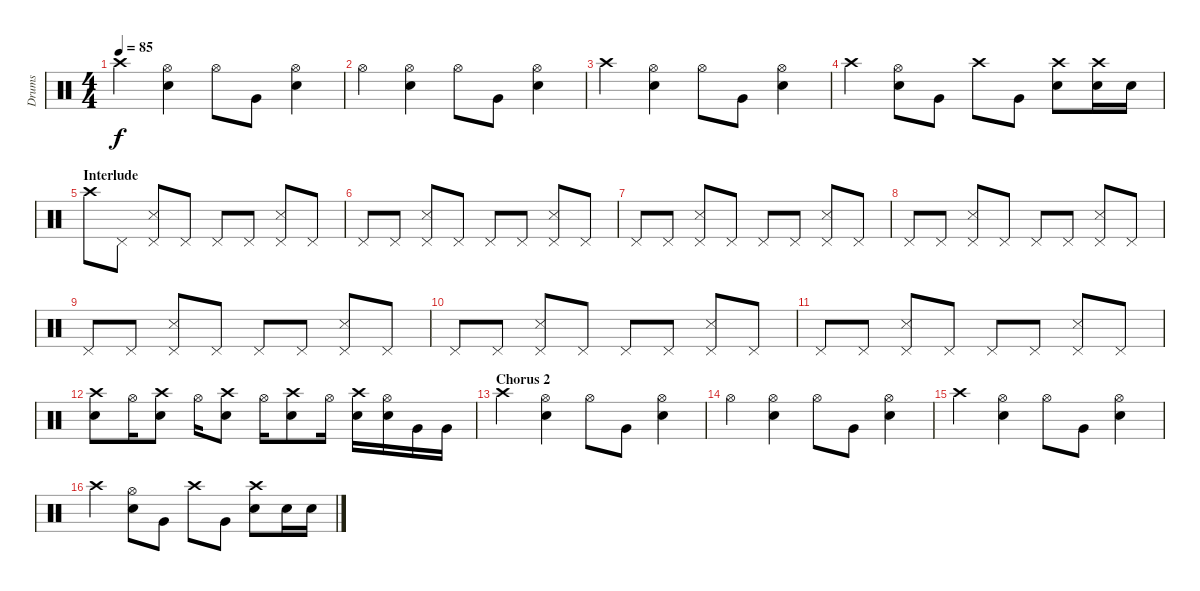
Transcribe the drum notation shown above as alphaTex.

\track ("Drums" "Drums") {instrument percussion}
\staff {score}
\articulation defaults
\ts (4 4)
\tempo 85
\clef neutral
\ks c "Crash high (hit)".4{dy f}
("Hi-Hat (open)" "Electric Snare (hit)").4 "Hi-Hat (open)".8 "Very Low Tom (hit)".8 ("Hi-Hat (open)" "Electric Snare (hit)").4 |
"Hi-Hat (open)".4 ("Hi-Hat (open)" "Electric Snare (hit)").4 "Hi-Hat (open)".8 "Very Low Tom (hit)".8 ("Hi-Hat (open)" "Electric Snare (hit)").4 |
"Crash high (hit)".4 ("Hi-Hat (open)" "Electric Snare (hit)").4 "Hi-Hat (open)".8 "Very Low Tom (hit)".8 ("Hi-Hat (open)" "Electric Snare (hit)").4 |
"Crash high (hit)".4 ("Hi-Hat (open)" "Electric Snare (hit)").8 "Very Low Tom (hit)".8 "Crash high (hit)".8 "Very Low Tom (hit)".8 ("Crash high (hit)" "Electric Snare (hit)").8 ("Crash high (hit)" "Electric Snare (hit)").16 "Electric Snare (hit)".16 |
\section ("" "Interlude")
"Crash high (hit)".8 "Pedal Hi-Hat (hit)".8 ("Pedal Hi-Hat (hit)" "Snare (side stick) 3").8 "Pedal Hi-Hat (hit)".8 "Pedal Hi-Hat (hit)".8 "Pedal Hi-Hat (hit)".8 ("Pedal Hi-Hat (hit)" "Snare (side stick) 3").8 "Pedal Hi-Hat (hit)".8 |
"Pedal Hi-Hat (hit)".8 "Pedal Hi-Hat (hit)".8 ("Pedal Hi-Hat (hit)" "Snare (side stick) 3").8 "Pedal Hi-Hat (hit)".8 "Pedal Hi-Hat (hit)".8 "Pedal Hi-Hat (hit)".8 ("Pedal Hi-Hat (hit)" "Snare (side stick) 3").8 "Pedal Hi-Hat (hit)".8 |
"Pedal Hi-Hat (hit)".8 "Pedal Hi-Hat (hit)".8 ("Pedal Hi-Hat (hit)" "Snare (side stick) 3").8 "Pedal Hi-Hat (hit)".8 "Pedal Hi-Hat (hit)".8 "Pedal Hi-Hat (hit)".8 ("Pedal Hi-Hat (hit)" "Snare (side stick) 3").8 "Pedal Hi-Hat (hit)".8 |
"Pedal Hi-Hat (hit)".8 "Pedal Hi-Hat (hit)".8 ("Pedal Hi-Hat (hit)" "Snare (side stick) 3").8 "Pedal Hi-Hat (hit)".8 "Pedal Hi-Hat (hit)".8 "Pedal Hi-Hat (hit)".8 ("Pedal Hi-Hat (hit)" "Snare (side stick) 3").8 "Pedal Hi-Hat (hit)".8 |
"Pedal Hi-Hat (hit)".8 "Pedal Hi-Hat (hit)".8 ("Pedal Hi-Hat (hit)" "Snare (side stick) 3").8 "Pedal Hi-Hat (hit)".8 "Pedal Hi-Hat (hit)".8 "Pedal Hi-Hat (hit)".8 ("Pedal Hi-Hat (hit)" "Snare (side stick) 3").8 "Pedal Hi-Hat (hit)".8 |
"Pedal Hi-Hat (hit)".8 "Pedal Hi-Hat (hit)".8 ("Pedal Hi-Hat (hit)" "Snare (side stick) 3").8 "Pedal Hi-Hat (hit)".8 "Pedal Hi-Hat (hit)".8 "Pedal Hi-Hat (hit)".8 ("Pedal Hi-Hat (hit)" "Snare (side stick) 3").8 "Pedal Hi-Hat (hit)".8 |
"Pedal Hi-Hat (hit)".8 "Pedal Hi-Hat (hit)".8 ("Pedal Hi-Hat (hit)" "Snare (side stick) 3").8 "Pedal Hi-Hat (hit)".8 "Pedal Hi-Hat (hit)".8 "Pedal Hi-Hat (hit)".8 ("Pedal Hi-Hat (hit)" "Snare (side stick) 3").8 "Pedal Hi-Hat (hit)".8 |
("Crash high (hit)" "Electric Snare (hit)").8 "Hi-Hat (open)".16 ("Crash high (hit)" "Electric Snare (hit)").8 "Hi-Hat (open)".16 ("Crash high (hit)" "Electric Snare (hit)").8 "Hi-Hat (open)".16 ("Crash high (hit)" "Electric Snare (hit)").8 "Hi-Hat (open)".16 ("Crash high (hit)" "Electric Snare (hit)").16 ("Hi-Hat (open)" "Electric Snare (hit)").16 "Very Low Tom (hit)".16 "Very Low Tom (hit)".16 |
\section ("" "Chorus 2")
"Crash high (hit)".4 ("Hi-Hat (open)" "Electric Snare (hit)").4 "Hi-Hat (open)".8 "Very Low Tom (hit)".8 ("Hi-Hat (open)" "Electric Snare (hit)").4 |
"Hi-Hat (open)".4 ("Hi-Hat (open)" "Electric Snare (hit)").4 "Hi-Hat (open)".8 "Very Low Tom (hit)".8 ("Hi-Hat (open)" "Electric Snare (hit)").4 |
"Crash high (hit)".4 ("Hi-Hat (open)" "Electric Snare (hit)").4 "Hi-Hat (open)".8 "Very Low Tom (hit)".8 ("Hi-Hat (open)" "Electric Snare (hit)").4 |
"Crash high (hit)".4 ("Hi-Hat (open)" "Electric Snare (hit)").8 "Very Low Tom (hit)".8 "Crash high (hit)".8 "Very Low Tom (hit)".8 ("Crash high (hit)" "Electric Snare (hit)").8 "Electric Snare (hit)".16 "Electric Snare (hit)".16
